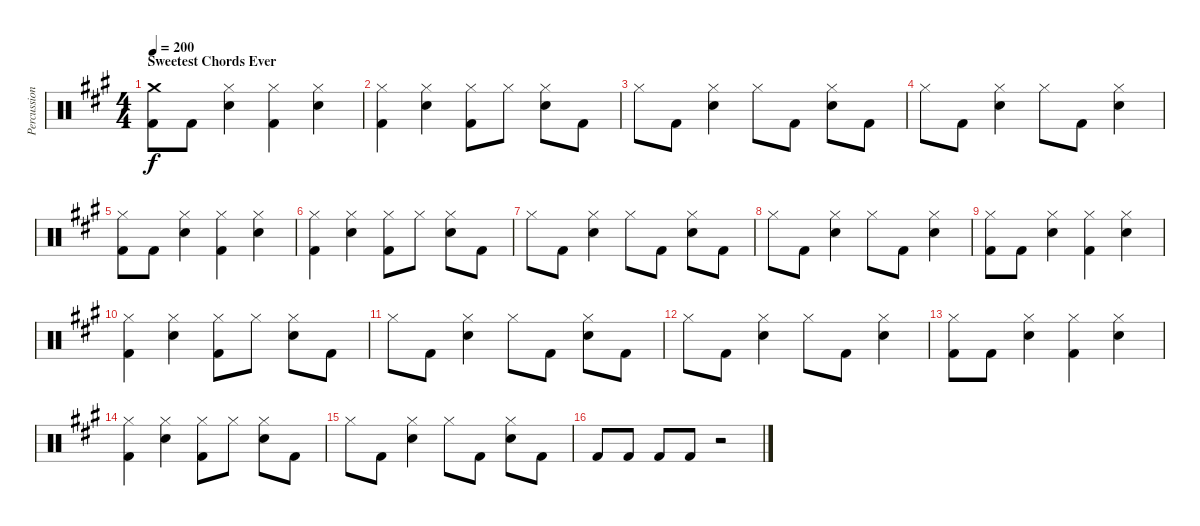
\track ("Percussion" "Percussion") {instrument percussion}
\staff {score}
\articulation defaults
\ts (4 4)
\section ("" "Sweetest Chords Ever")
\tempo 200
\clef neutral
\ks f#minor
("Crash medium (hit)" "Kick (hit) 2").8{dy f} "Kick (hit) 2".8 ("Hi-Hat (closed)" "Electric Snare (hit)").4 ("Hi-Hat (closed)" "Kick (hit) 2").4 ("Hi-Hat (closed)" "Electric Snare (hit)").4 |
("Hi-Hat (closed)" "Kick (hit) 2").4 ("Hi-Hat (closed)" "Electric Snare (hit)").4 ("Hi-Hat (closed)" "Kick (hit) 2").8 "Hi-Hat (closed)".8 ("Hi-Hat (closed)" "Electric Snare (hit)").8 "Kick (hit) 2".8 |
"Hi-Hat (closed)".8 "Kick (hit) 2".8 ("Hi-Hat (closed)" "Electric Snare (hit)").4 "Hi-Hat (closed)".8 "Kick (hit) 2".8 ("Hi-Hat (closed)" "Electric Snare (hit)").8 "Kick (hit) 2".8 |
"Hi-Hat (closed)".8 "Kick (hit) 2".8 ("Hi-Hat (closed)" "Electric Snare (hit)").4 "Hi-Hat (closed)".8 "Kick (hit) 2".8 ("Hi-Hat (closed)" "Electric Snare (hit)").4 |
("Hi-Hat (closed)" "Kick (hit) 2").8 "Kick (hit) 2".8 ("Hi-Hat (closed)" "Electric Snare (hit)").4 ("Hi-Hat (closed)" "Kick (hit) 2").4 ("Hi-Hat (closed)" "Electric Snare (hit)").4 |
("Hi-Hat (closed)" "Kick (hit) 2").4 ("Hi-Hat (closed)" "Electric Snare (hit)").4 ("Hi-Hat (closed)" "Kick (hit) 2").8 "Hi-Hat (closed)".8 ("Hi-Hat (closed)" "Electric Snare (hit)").8 "Kick (hit) 2".8 |
"Hi-Hat (closed)".8 "Kick (hit) 2".8 ("Hi-Hat (closed)" "Electric Snare (hit)").4 "Hi-Hat (closed)".8 "Kick (hit) 2".8 ("Hi-Hat (closed)" "Electric Snare (hit)").8 "Kick (hit) 2".8 |
"Hi-Hat (closed)".8 "Kick (hit) 2".8 ("Hi-Hat (closed)" "Electric Snare (hit)").4 "Hi-Hat (closed)".8 "Kick (hit) 2".8 ("Hi-Hat (closed)" "Electric Snare (hit)").4 |
("Hi-Hat (closed)" "Kick (hit) 2").8 "Kick (hit) 2".8 ("Hi-Hat (closed)" "Electric Snare (hit)").4 ("Hi-Hat (closed)" "Kick (hit) 2").4 ("Hi-Hat (closed)" "Electric Snare (hit)").4 |
("Hi-Hat (closed)" "Kick (hit) 2").4 ("Hi-Hat (closed)" "Electric Snare (hit)").4 ("Hi-Hat (closed)" "Kick (hit) 2").8 "Hi-Hat (closed)".8 ("Hi-Hat (closed)" "Electric Snare (hit)").8 "Kick (hit) 2".8 |
"Hi-Hat (closed)".8 "Kick (hit) 2".8 ("Hi-Hat (closed)" "Electric Snare (hit)").4 "Hi-Hat (closed)".8 "Kick (hit) 2".8 ("Hi-Hat (closed)" "Electric Snare (hit)").8 "Kick (hit) 2".8 |
"Hi-Hat (closed)".8 "Kick (hit) 2".8 ("Hi-Hat (closed)" "Electric Snare (hit)").4 "Hi-Hat (closed)".8 "Kick (hit) 2".8 ("Hi-Hat (closed)" "Electric Snare (hit)").4 |
("Hi-Hat (closed)" "Kick (hit) 2").8 "Kick (hit) 2".8 ("Hi-Hat (closed)" "Electric Snare (hit)").4 ("Hi-Hat (closed)" "Kick (hit) 2").4 ("Hi-Hat (closed)" "Electric Snare (hit)").4 |
("Hi-Hat (closed)" "Kick (hit) 2").4 ("Hi-Hat (closed)" "Electric Snare (hit)").4 ("Hi-Hat (closed)" "Kick (hit) 2").8 "Hi-Hat (closed)".8 ("Hi-Hat (closed)" "Electric Snare (hit)").8 "Kick (hit) 2".8 |
"Hi-Hat (closed)".8 "Kick (hit) 2".8 ("Hi-Hat (closed)" "Electric Snare (hit)").4 "Hi-Hat (closed)".8 "Kick (hit) 2".8 ("Hi-Hat (closed)" "Electric Snare (hit)").8 "Kick (hit) 2".8 |
"Kick (hit) 2".8 "Kick (hit) 2".8 "Kick (hit) 2".8 "Kick (hit) 2".8 r.2
